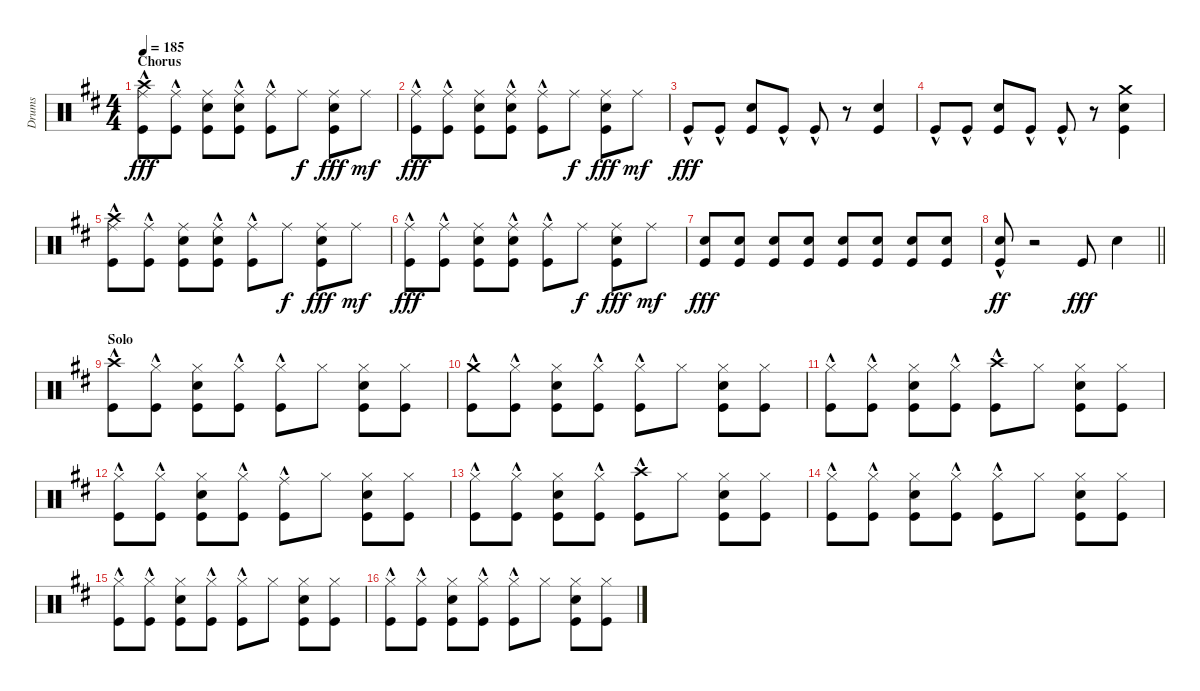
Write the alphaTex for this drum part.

\track ("Drums" "Drums") {instrument percussion}
\staff {score}
\articulation defaults
\ts (4 4)
\section ("" "Chorus")
\tempo 185
\clef neutral
\ks d
("Ride (middle)" "Crash high (hit)" "Kick (hit)"{hac}).8{dy fff} ("Ride (middle)" "Kick (hit)"{hac}).8 ("Ride (middle)" "Snare (hit) 2" "Kick (hit)").8 ("Ride (middle)" "Snare (hit) 2" "Kick (hit)"{hac}).8 ("Ride (middle)" "Kick (hit)"{hac}).8 "Ride (middle)".8{dy f} ("Ride (middle)" "Snare (hit) 2" "Kick (hit)").8{dy fff} "Ride (middle)".8{dy mf} |
("Ride (middle)" "Kick (hit)"{hac}).8{dy fff} ("Ride (middle)" "Kick (hit)"{hac}).8 ("Ride (middle)" "Snare (hit) 2" "Kick (hit)").8 ("Ride (middle)" "Snare (hit) 2" "Kick (hit)"{hac}).8 ("Ride (middle)" "Kick (hit)"{hac}).8 "Ride (middle)".8{dy f} ("Ride (middle)" "Snare (hit) 2" "Kick (hit)").8{dy fff} "Ride (middle)".8{dy mf} |
"Kick (hit)"{hac}.8{dy fff} "Kick (hit)"{hac}.8 ("Snare (hit) 2" "Kick (hit)").8 "Kick (hit)"{hac}.8 "Kick (hit)"{hac}.8 r.8 ("Snare (hit) 2" "Kick (hit)").4 |
"Kick (hit)"{hac}.8 "Kick (hit)"{hac}.8 ("Snare (hit) 2" "Kick (hit)").8 "Kick (hit)"{hac}.8 "Kick (hit)"{hac}.8 r.8 ("Crash medium (hit)" "Snare (hit) 2" "Kick (hit)").4 |
("Ride (middle)" "Crash high (hit)" "Kick (hit)"{hac}).8 ("Ride (middle)" "Kick (hit)"{hac}).8 ("Ride (middle)" "Snare (hit) 2" "Kick (hit)").8 ("Ride (middle)" "Snare (hit) 2" "Kick (hit)"{hac}).8 ("Ride (middle)" "Kick (hit)"{hac}).8 "Ride (middle)".8{dy f} ("Ride (middle)" "Snare (hit) 2" "Kick (hit)").8{dy fff} "Ride (middle)".8{dy mf} |
("Ride (middle)" "Kick (hit)"{hac}).8{dy fff} ("Ride (middle)" "Kick (hit)"{hac}).8 ("Ride (middle)" "Snare (hit) 2" "Kick (hit)").8 ("Ride (middle)" "Snare (hit) 2" "Kick (hit)"{hac}).8 ("Ride (middle)" "Kick (hit)"{hac}).8 "Ride (middle)".8{dy f} ("Ride (middle)" "Snare (hit) 2" "Kick (hit)").8{dy fff} "Ride (middle)".8{dy mf} |
("Snare (hit) 2" "Kick (hit)").8{dy fff} ("Snare (hit) 2" "Kick (hit)").8 ("Snare (hit) 2" "Kick (hit)").8 ("Snare (hit) 2" "Kick (hit)").8 ("Snare (hit) 2" "Kick (hit)").8 ("Snare (hit) 2" "Kick (hit)").8 ("Snare (hit) 2" "Kick (hit)").8 ("Snare (hit) 2" "Kick (hit)").8 |
\barLineRight lightlight
("Snare (hit) 2" "Kick (hit)"{hac}).8{dy ff} r.2 "Kick (hit)".8{dy fff} "Snare (hit) 2".4 |
\section ("" "Solo")
("Crash high (hit)"{hac} "Kick (hit)"{hac}).8 ("Hi-Hat (closed)" "Kick (hit)"{hac}).8 ("Hi-Hat (closed)" "Snare (hit) 2" "Kick (hit)").8 ("Hi-Hat (closed)" "Kick (hit)"{hac}).8 ("Hi-Hat (closed)" "Kick (hit)"{hac}).8 "Hi-Hat (closed)".8 ("Hi-Hat (closed)" "Snare (hit) 2" "Kick (hit)").8 ("Hi-Hat (closed)" "Kick (hit)").8 |
("Crash medium (hit)" "Kick (hit)"{hac}).8 ("Hi-Hat (closed)" "Kick (hit)"{hac}).8 ("Hi-Hat (closed)" "Snare (hit) 2" "Kick (hit)").8 ("Hi-Hat (closed)" "Kick (hit)"{hac}).8 ("Hi-Hat (closed)" "Kick (hit)"{hac}).8 "Hi-Hat (closed)".8 ("Hi-Hat (closed)" "Snare (hit) 2" "Kick (hit)").8 ("Hi-Hat (closed)" "Kick (hit)").8 |
("Hi-Hat (closed)" "Kick (hit)"{hac}).8 ("Hi-Hat (closed)" "Kick (hit)"{hac}).8 ("Hi-Hat (closed)" "Snare (hit) 2" "Kick (hit)").8 ("Hi-Hat (closed)" "Kick (hit)"{hac}).8 ("Crash high (hit)" "Kick (hit)"{hac}).8 "Hi-Hat (closed)".8 ("Hi-Hat (closed)" "Snare (hit) 2" "Kick (hit)").8 ("Hi-Hat (closed)" "Kick (hit)").8 |
("Hi-Hat (closed)" "Kick (hit)"{hac}).8 ("Hi-Hat (closed)" "Kick (hit)"{hac}).8 ("Hi-Hat (closed)" "Snare (hit) 2" "Kick (hit)").8 ("Hi-Hat (closed)" "Kick (hit)"{hac}).8 ("Ride (middle)" "Kick (hit)"{hac}).8 "Hi-Hat (closed)".8 ("Hi-Hat (closed)" "Snare (hit) 2" "Kick (hit)").8 ("Hi-Hat (closed)" "Kick (hit)").8 |
("Hi-Hat (closed)" "Kick (hit)"{hac}).8 ("Hi-Hat (closed)" "Kick (hit)"{hac}).8 ("Hi-Hat (closed)" "Snare (hit) 2" "Kick (hit)").8 ("Hi-Hat (closed)" "Kick (hit)"{hac}).8 ("Crash high (hit)" "Kick (hit)"{hac}).8 "Hi-Hat (closed)".8 ("Hi-Hat (closed)" "Snare (hit) 2" "Kick (hit)").8 ("Hi-Hat (closed)" "Kick (hit)").8 |
("Hi-Hat (closed)" "Kick (hit)"{hac}).8 ("Hi-Hat (closed)" "Kick (hit)"{hac}).8 ("Hi-Hat (closed)" "Snare (hit) 2" "Kick (hit)").8 ("Hi-Hat (closed)" "Kick (hit)"{hac}).8 ("Hi-Hat (closed)" "Kick (hit)"{hac}).8 "Hi-Hat (closed)".8 ("Hi-Hat (closed)" "Snare (hit) 2" "Kick (hit)").8 ("Hi-Hat (closed)" "Kick (hit)").8 |
("Hi-Hat (closed)" "Kick (hit)"{hac}).8 ("Hi-Hat (closed)" "Kick (hit)"{hac}).8 ("Hi-Hat (closed)" "Snare (hit) 2" "Kick (hit)").8 ("Hi-Hat (closed)" "Kick (hit)"{hac}).8 ("Hi-Hat (closed)" "Kick (hit)"{hac}).8 "Hi-Hat (closed)".8 ("Hi-Hat (closed)" "Snare (hit) 2" "Kick (hit)").8 ("Hi-Hat (closed)" "Kick (hit)").8 |
("Hi-Hat (closed)" "Kick (hit)"{hac}).8 ("Hi-Hat (closed)" "Kick (hit)"{hac}).8 ("Hi-Hat (closed)" "Snare (hit) 2" "Kick (hit)").8 ("Hi-Hat (closed)" "Kick (hit)"{hac}).8 ("Hi-Hat (closed)" "Kick (hit)"{hac}).8 "Hi-Hat (closed)".8 ("Hi-Hat (closed)" "Snare (hit) 2" "Kick (hit)").8 ("Hi-Hat (closed)" "Kick (hit)").8
